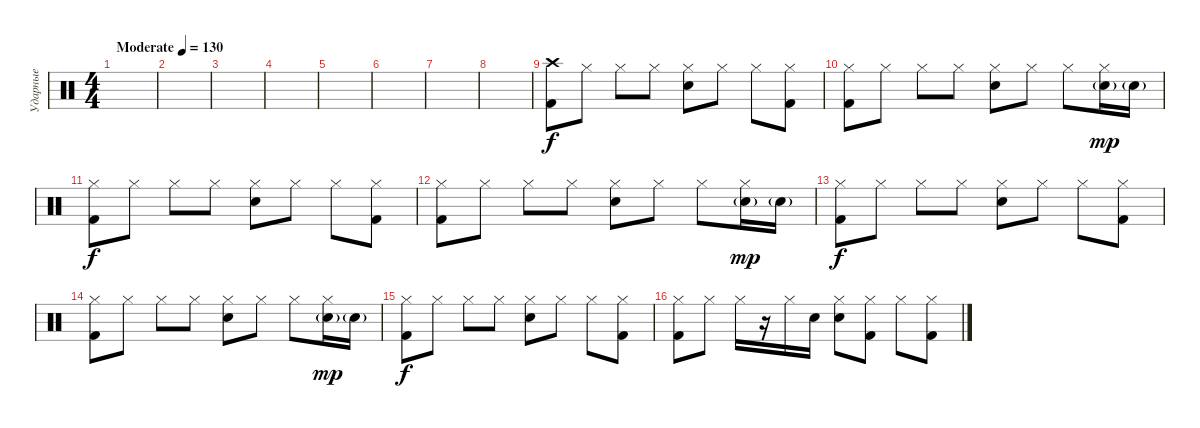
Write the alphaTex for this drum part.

\track ("Ударные" "Ударные") {instrument percussion}
\staff {score}
\articulation defaults
\ts (4 4)
\tempo (130 "Moderate")
\clef neutral
\ks c
|
|
|
|
|
|
|
|
("Crash high (hit)" "Kick (hit) 2").8 "Hi-Hat (closed)".8 "Hi-Hat (closed)".8 "Hi-Hat (closed)".8 ("Hi-Hat (closed)" "Electric Snare (hit)").8 "Hi-Hat (closed)".8 "Hi-Hat (closed)".8 ("Hi-Hat (closed)" "Kick (hit) 2").8 |
("Hi-Hat (closed)" "Kick (hit) 2").8 "Hi-Hat (closed)".8 "Hi-Hat (closed)".8 "Hi-Hat (closed)".8 ("Hi-Hat (closed)" "Electric Snare (hit)").8 "Hi-Hat (closed)".8 "Hi-Hat (closed)".8 ("Hi-Hat (closed)" "Electric Snare (hit)"{g}).16{dy mp} "Electric Snare (hit)"{g}.16 |
("Hi-Hat (closed)" "Kick (hit) 2").8{dy f} "Hi-Hat (closed)".8 "Hi-Hat (closed)".8 "Hi-Hat (closed)".8 ("Hi-Hat (closed)" "Electric Snare (hit)").8 "Hi-Hat (closed)".8 "Hi-Hat (closed)".8 ("Hi-Hat (closed)" "Kick (hit) 2").8 |
("Hi-Hat (closed)" "Kick (hit) 2").8 "Hi-Hat (closed)".8 "Hi-Hat (closed)".8 "Hi-Hat (closed)".8 ("Hi-Hat (closed)" "Electric Snare (hit)").8 "Hi-Hat (closed)".8 "Hi-Hat (closed)".8 ("Hi-Hat (closed)" "Electric Snare (hit)"{g}).16{dy mp} "Electric Snare (hit)"{g}.16 |
("Hi-Hat (closed)" "Kick (hit) 2").8{dy f} "Hi-Hat (closed)".8 "Hi-Hat (closed)".8 "Hi-Hat (closed)".8 ("Hi-Hat (closed)" "Electric Snare (hit)").8 "Hi-Hat (closed)".8 "Hi-Hat (closed)".8 ("Hi-Hat (closed)" "Kick (hit) 2").8 |
("Hi-Hat (closed)" "Kick (hit) 2").8 "Hi-Hat (closed)".8 "Hi-Hat (closed)".8 "Hi-Hat (closed)".8 ("Hi-Hat (closed)" "Electric Snare (hit)").8 "Hi-Hat (closed)".8 "Hi-Hat (closed)".8 ("Hi-Hat (closed)" "Electric Snare (hit)"{g}).16{dy mp} "Electric Snare (hit)"{g}.16 |
("Hi-Hat (closed)" "Kick (hit) 2").8{dy f} "Hi-Hat (closed)".8 "Hi-Hat (closed)".8 "Hi-Hat (closed)".8 ("Hi-Hat (closed)" "Electric Snare (hit)").8 "Hi-Hat (closed)".8 "Hi-Hat (closed)".8 ("Hi-Hat (closed)" "Kick (hit) 2").8 |
("Hi-Hat (closed)" "Kick (hit) 2").8 "Hi-Hat (closed)".8 "Hi-Hat (closed)".16 r.16 "Hi-Hat (closed)".16 "Electric Snare (hit)".16 ("Hi-Hat (closed)" "Electric Snare (hit)").8 ("Hi-Hat (closed)" "Kick (hit) 2").8 "Hi-Hat (closed)".8 ("Hi-Hat (closed)" "Kick (hit) 2").8
